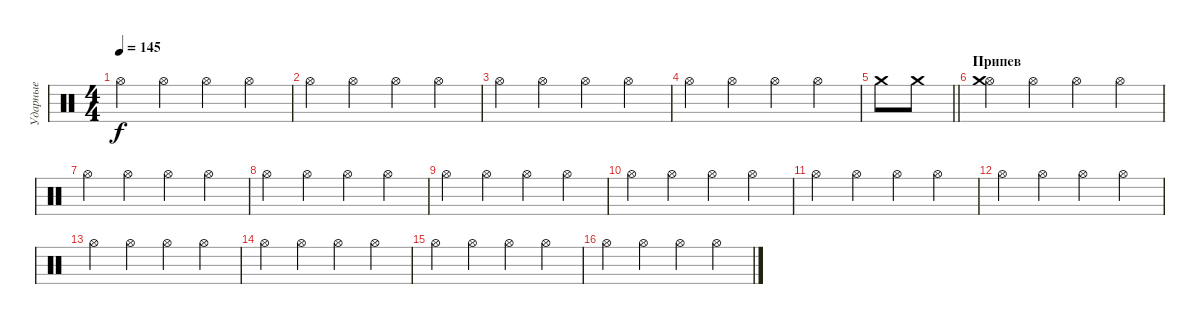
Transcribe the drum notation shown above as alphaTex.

\track ("Ударные" "Ударные") {instrument percussion}
\staff {score}
\articulation defaults
\ts (4 4)
\tempo 145
\clef neutral
\ks c "Hi-Hat (open)".4{dy f} "Hi-Hat (open)".4 "Hi-Hat (open)".4 "Hi-Hat (open)".4
|
"Hi-Hat (open)".4 "Hi-Hat (open)".4 "Hi-Hat (open)".4 "Hi-Hat (open)".4 |
"Hi-Hat (open)".4 "Hi-Hat (open)".4 "Hi-Hat (open)".4 "Hi-Hat (open)".4 |
"Hi-Hat (open)".4 "Hi-Hat (open)".4 "Hi-Hat (open)".4 "Hi-Hat (open)".4 |
\barLineRight lightlight "Crash medium (hit)".8 "Crash medium (hit)".8
|
\section ("" "Припев")
("Hi-Hat (open)" "Crash medium (hit)").4 "Hi-Hat (open)".4 "Hi-Hat (open)".4 "Hi-Hat (open)".4 |
"Hi-Hat (open)".4 "Hi-Hat (open)".4 "Hi-Hat (open)".4 "Hi-Hat (open)".4 |
"Hi-Hat (open)".4 "Hi-Hat (open)".4 "Hi-Hat (open)".4 "Hi-Hat (open)".4 |
"Hi-Hat (open)".4 "Hi-Hat (open)".4 "Hi-Hat (open)".4 "Hi-Hat (open)".4 |
"Hi-Hat (open)".4 "Hi-Hat (open)".4 "Hi-Hat (open)".4 "Hi-Hat (open)".4 |
"Hi-Hat (open)".4 "Hi-Hat (open)".4 "Hi-Hat (open)".4 "Hi-Hat (open)".4 |
"Hi-Hat (open)".4 "Hi-Hat (open)".4 "Hi-Hat (open)".4 "Hi-Hat (open)".4 |
"Hi-Hat (open)".4 "Hi-Hat (open)".4 "Hi-Hat (open)".4 "Hi-Hat (open)".4 |
"Hi-Hat (open)".4 "Hi-Hat (open)".4 "Hi-Hat (open)".4 "Hi-Hat (open)".4 |
"Hi-Hat (open)".4 "Hi-Hat (open)".4 "Hi-Hat (open)".4 "Hi-Hat (open)".4 |
"Hi-Hat (open)".4 "Hi-Hat (open)".4 "Hi-Hat (open)".4 "Hi-Hat (open)".4
